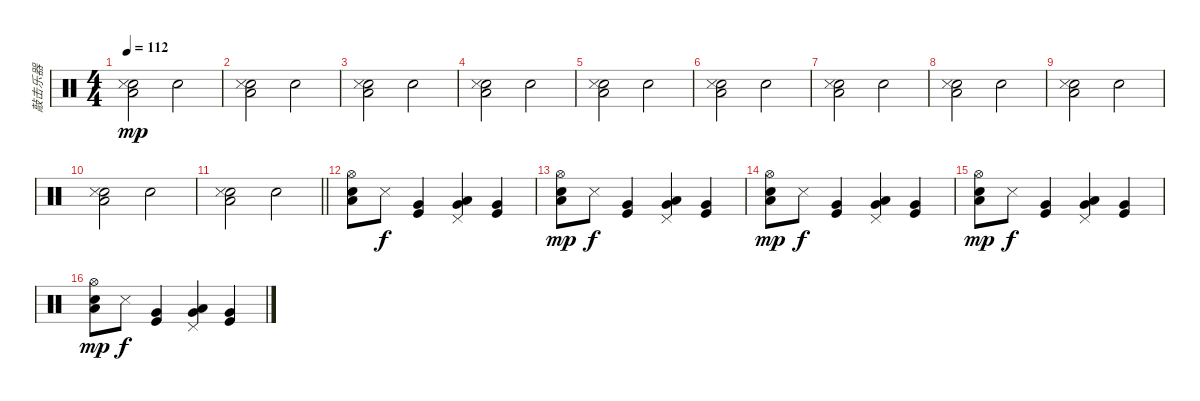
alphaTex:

\track ("敲击乐器" "敲击乐器") {instrument percussion}
\staff {score}
\articulation defaults
\ts (4 4)
\tempo 112
\clef neutral
\ks c
("Snare (hit) 2" "Snare (side stick) 3" "Low Floor Tom (hit)").2{dy mp} "Electric Snare (hit)".2 |
("Snare (hit) 2" "Snare (side stick) 3" "Low Floor Tom (hit)").2 "Electric Snare (hit)".2 |
("Snare (hit) 2" "Snare (side stick) 3" "Low Floor Tom (hit)").2 "Electric Snare (hit)".2 |
("Snare (hit) 2" "Snare (side stick) 3" "Low Floor Tom (hit)").2 "Electric Snare (hit)".2 |
("Snare (hit) 2" "Snare (side stick) 3" "Low Floor Tom (hit)").2 "Electric Snare (hit)".2 |
("Snare (hit) 2" "Snare (side stick) 3" "Low Floor Tom (hit)").2 "Electric Snare (hit)".2 |
("Snare (hit) 2" "Snare (side stick) 3" "Low Floor Tom (hit)").2 "Electric Snare (hit)".2 |
("Snare (hit) 2" "Snare (side stick) 3" "Low Floor Tom (hit)").2 "Electric Snare (hit)".2 |
("Snare (hit) 2" "Snare (side stick) 3" "Low Floor Tom (hit)").2 "Electric Snare (hit)".2 |
("Snare (hit) 2" "Snare (side stick) 3" "Low Floor Tom (hit)").2 "Electric Snare (hit)".2 |
\barLineRight lightlight
("Snare (hit) 2" "Snare (side stick) 3" "Low Floor Tom (hit)").2 "Electric Snare (hit)".2 |
("Low Floor Tom (hit)" "Snare (hit) 2" "Hi-Hat (open)").8 "Metronome (hit)".8{dy f} ("Kick (hit)" "Very Low Tom (hit)").4 ("Very Low Tom (hit)" "Pedal Hi-Hat (hit)" "Low Tom (hit)").4 ("Kick (hit)" "Very Low Tom (hit)").4 |
("Low Floor Tom (hit)" "Snare (hit) 2" "Hi-Hat (open)").8{dy mp} "Metronome (hit)".8{dy f} ("Kick (hit)" "Very Low Tom (hit)").4 ("Very Low Tom (hit)" "Pedal Hi-Hat (hit)" "Low Tom (hit)").4 ("Kick (hit)" "Very Low Tom (hit)").4 |
("Low Floor Tom (hit)" "Snare (hit) 2" "Hi-Hat (open)").8{dy mp} "Metronome (hit)".8{dy f} ("Kick (hit)" "Very Low Tom (hit)").4 ("Very Low Tom (hit)" "Pedal Hi-Hat (hit)" "Low Tom (hit)").4 ("Kick (hit)" "Very Low Tom (hit)").4 |
("Low Floor Tom (hit)" "Snare (hit) 2" "Hi-Hat (open)").8{dy mp} "Metronome (hit)".8{dy f} ("Kick (hit)" "Very Low Tom (hit)").4 ("Very Low Tom (hit)" "Pedal Hi-Hat (hit)" "Low Tom (hit)").4 ("Kick (hit)" "Very Low Tom (hit)").4 |
("Low Floor Tom (hit)" "Snare (hit) 2" "Hi-Hat (open)").8{dy mp} "Metronome (hit)".8{dy f} ("Kick (hit)" "Very Low Tom (hit)").4 ("Very Low Tom (hit)" "Pedal Hi-Hat (hit)" "Low Tom (hit)").4 ("Kick (hit)" "Very Low Tom (hit)").4
